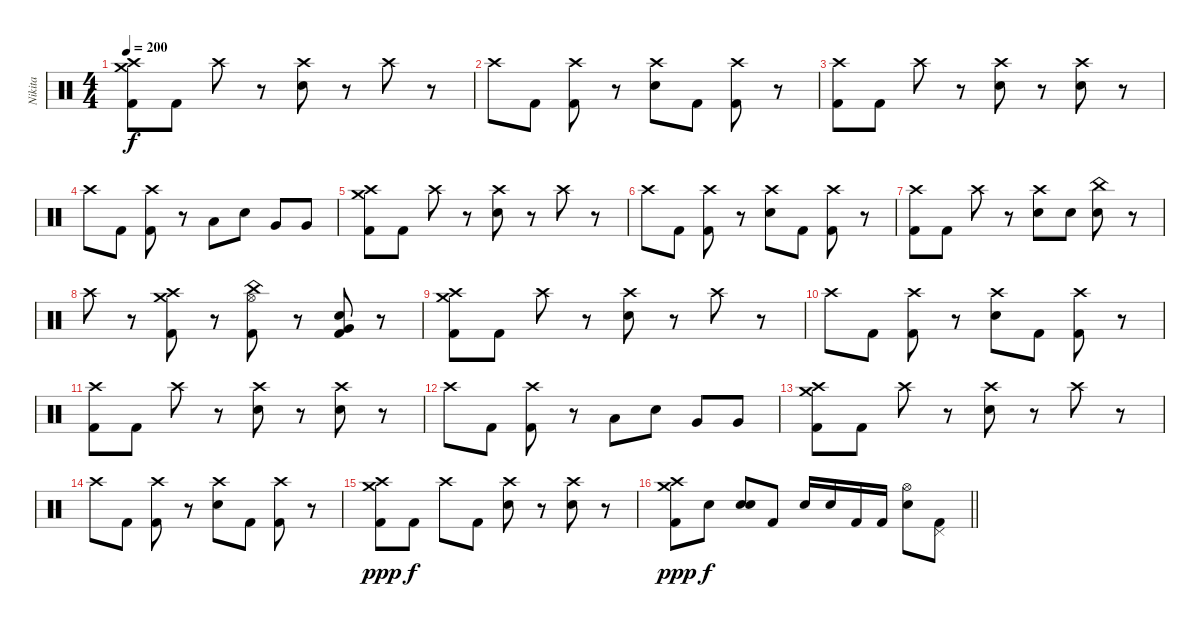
\track ("Nikita" "Nikita") {instrument percussion}
\staff {score}
\articulation defaults
\ts (4 4)
\tempo 200
\clef neutral
\ks c
("Crash high (hit)" "Crash medium (hit)" "Kick (hit) 2").8{dy f} "Kick (hit) 2".8 "Crash high (hit)".8 r.8 ("Crash high (hit)" "Electric Snare (hit)").8 r.8 "Crash high (hit)".8 r.8 |
"Crash high (hit)".8 "Kick (hit) 2".8 ("Crash high (hit)" "Kick (hit) 2").8 r.8 ("Crash high (hit)" "Electric Snare (hit)").8 "Kick (hit) 2".8 ("Crash high (hit)" "Kick (hit) 2").8 r.8 |
("Crash high (hit)" "Kick (hit) 2").8 "Kick (hit) 2".8 "Crash high (hit)".8 r.8 ("Crash high (hit)" "Electric Snare (hit)").8 r.8 ("Crash high (hit)" "Electric Snare (hit)").8 r.8 |
"Crash high (hit)".8 "Kick (hit) 2".8 ("Crash high (hit)" "Kick (hit) 2").8 r.8 "Low Tom (hit)".8 "Electric Snare (hit)".8 "Very Low Tom (hit)".8 "Very Low Tom (hit)".8 |
("Crash high (hit)" "Crash medium (hit)" "Kick (hit) 2").8 "Kick (hit) 2".8 "Crash high (hit)".8 r.8 ("Crash high (hit)" "Electric Snare (hit)").8 r.8 "Crash high (hit)".8 r.8 |
"Crash high (hit)".8 "Kick (hit) 2".8 ("Crash high (hit)" "Kick (hit) 2").8 r.8 ("Crash high (hit)" "Electric Snare (hit)").8 "Kick (hit) 2".8 ("Crash high (hit)" "Kick (hit) 2").8 r.8 |
("Crash high (hit)" "Kick (hit) 2").8 "Kick (hit) 2".8 "Crash high (hit)".8 r.8 ("Crash high (hit)" "Electric Snare (hit)").8 "Electric Snare (hit)".8 ("China (hit)" "Electric Snare (hit)").8 r.8 |
"Crash high (hit)".8 r.8 ("Crash medium (hit)" "Crash high (hit)" "Kick (hit) 2").8 r.8 ("China (hit)" "Hi-Hat (open)" "Kick (hit) 2").8 r.8 ("Electric Snare (hit)" "Very Low Tom (hit)" "Kick (hit) 2").8 r.8 |
("Crash high (hit)" "Crash medium (hit)" "Kick (hit) 2").8 "Kick (hit) 2".8 "Crash high (hit)".8 r.8 ("Crash high (hit)" "Electric Snare (hit)").8 r.8 "Crash high (hit)".8 r.8 |
"Crash high (hit)".8 "Kick (hit) 2".8 ("Crash high (hit)" "Kick (hit) 2").8 r.8 ("Crash high (hit)" "Electric Snare (hit)").8 "Kick (hit) 2".8 ("Crash high (hit)" "Kick (hit) 2").8 r.8 |
("Crash high (hit)" "Kick (hit) 2").8 "Kick (hit) 2".8 "Crash high (hit)".8 r.8 ("Crash high (hit)" "Electric Snare (hit)").8 r.8 ("Crash high (hit)" "Electric Snare (hit)").8 r.8 |
"Crash high (hit)".8 "Kick (hit) 2".8 ("Crash high (hit)" "Kick (hit) 2").8 r.8 "Low Tom (hit)".8 "Electric Snare (hit)".8 "Very Low Tom (hit)".8 "Very Low Tom (hit)".8 |
("Crash high (hit)" "Crash medium (hit)" "Kick (hit) 2").8 "Kick (hit) 2".8 "Crash high (hit)".8 r.8 ("Crash high (hit)" "Electric Snare (hit)").8 r.8 "Crash high (hit)".8 r.8 |
"Crash high (hit)".8 "Kick (hit) 2".8 ("Crash high (hit)" "Kick (hit) 2").8 r.8 ("Crash high (hit)" "Electric Snare (hit)").8 "Kick (hit) 2".8 ("Crash high (hit)" "Kick (hit) 2").8 r.8 |
("Crash high (hit)" "Crash medium (hit)" "Kick (hit) 2").8{dy ppp} "Kick (hit) 2".8{dy f} "Crash high (hit)".8 "Kick (hit) 2".8 ("Crash high (hit)" "Electric Snare (hit)").8 r.8 ("Crash high (hit)" "Electric Snare (hit)").8 r.8 |
\barLineRight lightlight
("Crash high (hit)" "Crash medium (hit)" "Kick (hit) 2").8{dy ppp} "Electric Snare (hit)".8{dy f} ("Metronome (bell)" "Electric Snare (hit)").8 "Kick (hit) 2".8 "Electric Snare (hit)".16 "Electric Snare (hit)".16 "Kick (hit) 2".16 "Kick (hit) 2".16 ("Hi-Hat (open)" "Electric Snare (hit)").8 ("Pedal Hi-Hat (hit)" "Kick (hit) 2").8
